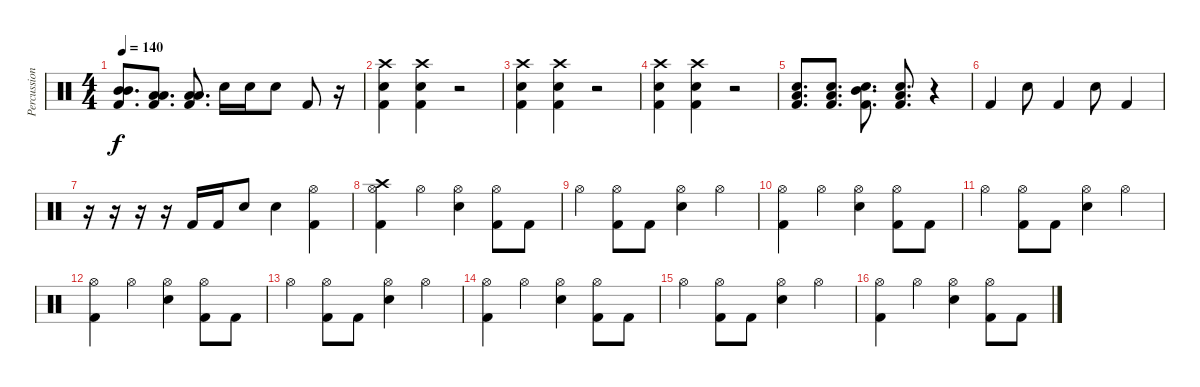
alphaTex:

\track ("Percussion" "Percussion") {instrument percussion}
\staff {score}
\articulation defaults
\ts (4 4)
\tempo 140
\clef neutral
\ks c
("Mid Tom (hit)" "Mid Tom (hit)" "Kick (hit) 2").8{d dy f} ("Low Tom (hit)" "Low Tom (hit)" "Kick (hit) 2").8{d} ("Low Floor Tom (hit)" "Low Floor Tom (hit)" "Kick (hit) 2").8{d} "Electric Snare (hit)".16 "Electric Snare (hit)".16 "Electric Snare (hit)".8 "Kick (hit) 2".8 r.16 |
("Crash high (hit)" "Electric Snare (hit)" "Kick (hit) 2").4 ("Crash high (hit)" "Electric Snare (hit)" "Kick (hit) 2").4 r.2 |
("Crash high (hit)" "Electric Snare (hit)" "Kick (hit) 2").4 ("Crash high (hit)" "Electric Snare (hit)" "Kick (hit) 2").4 r.2 |
("Crash high (hit)" "Electric Snare (hit)" "Kick (hit) 2").4 ("Crash high (hit)" "Electric Snare (hit)" "Kick (hit) 2").4 r.2 |
("Low Floor Tom (hit)" "Electric Snare (hit)" "Kick (hit) 2").8{d} ("Low Tom (hit)" "Electric Snare (hit)" "Kick (hit) 2").8{d} ("Mid Tom (hit)" "Electric Snare (hit)" "Kick (hit) 2").8{d} ("Low Tom (hit)" "Electric Snare (hit)" "Kick (hit) 2").8{d} r.4 |
"Kick (hit) 2".4 "Electric Snare (hit)".8 "Kick (hit) 2".4 "Electric Snare (hit)".8 "Kick (hit) 2".4 |
r.16 r.16 r.16 r.16 "Kick (hit) 2".16 "Kick (hit) 2".16 "Electric Snare (hit)".8 "Electric Snare (hit)".4 ("Hi-Hat (open)" "Kick (hit) 2").4 |
("Crash high (hit)" "Hi-Hat (open)" "Kick (hit) 2").4 "Hi-Hat (open)".4 ("Hi-Hat (open)" "Electric Snare (hit)").4 ("Hi-Hat (open)" "Kick (hit) 2").8 "Kick (hit) 2".8 |
"Hi-Hat (open)".4 ("Hi-Hat (open)" "Kick (hit) 2").8 "Kick (hit) 2".8 ("Hi-Hat (open)" "Electric Snare (hit)").4 "Hi-Hat (open)".4 |
("Hi-Hat (open)" "Kick (hit) 2").4 "Hi-Hat (open)".4 ("Hi-Hat (open)" "Electric Snare (hit)").4 ("Hi-Hat (open)" "Kick (hit) 2").8 "Kick (hit) 2".8 |
"Hi-Hat (open)".4 ("Hi-Hat (open)" "Kick (hit) 2").8 "Kick (hit) 2".8 ("Hi-Hat (open)" "Electric Snare (hit)").4 "Hi-Hat (open)".4 |
("Hi-Hat (open)" "Kick (hit) 2").4 "Hi-Hat (open)".4 ("Hi-Hat (open)" "Electric Snare (hit)").4 ("Hi-Hat (open)" "Kick (hit) 2").8 "Kick (hit) 2".8 |
"Hi-Hat (open)".4 ("Hi-Hat (open)" "Kick (hit) 2").8 "Kick (hit) 2".8 ("Hi-Hat (open)" "Electric Snare (hit)").4 "Hi-Hat (open)".4 |
("Hi-Hat (open)" "Kick (hit) 2").4 "Hi-Hat (open)".4 ("Hi-Hat (open)" "Electric Snare (hit)").4 ("Hi-Hat (open)" "Kick (hit) 2").8 "Kick (hit) 2".8 |
"Hi-Hat (open)".4 ("Hi-Hat (open)" "Kick (hit) 2").8 "Kick (hit) 2".8 ("Hi-Hat (open)" "Electric Snare (hit)").4 "Hi-Hat (open)".4 |
("Hi-Hat (open)" "Kick (hit) 2").4 "Hi-Hat (open)".4 ("Hi-Hat (open)" "Electric Snare (hit)").4 ("Hi-Hat (open)" "Kick (hit) 2").8 "Kick (hit) 2".8
